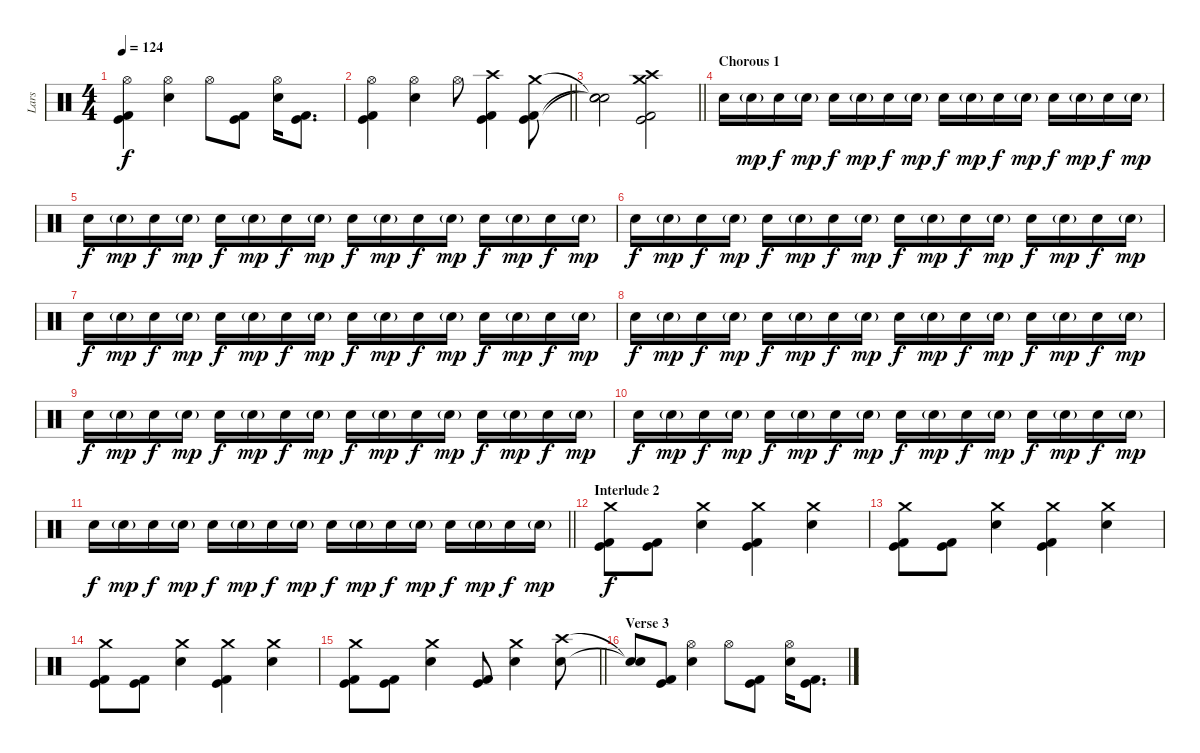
\track ("Lars" "Lars") {instrument percussion}
\staff {score}
\articulation defaults
\ts (4 4)
\tempo 124
\clef neutral
\ks c
("Hi-Hat (open)" "Kick (hit)" "Kick (hit) 2").4{dy f} ("Hi-Hat (open)" "Electric Snare (hit)").4 "Hi-Hat (open)".8 ("Kick (hit)" "Kick (hit) 2").8 ("Hi-Hat (open)" "Electric Snare (hit)").16 ("Kick (hit)" "Kick (hit) 2").8{d} |
\barLineRight lightlight
("Hi-Hat (open)" "Kick (hit)" "Kick (hit) 2").4 ("Hi-Hat (open)" "Electric Snare (hit)").4 "Hi-Hat (open)".8 ("Crash high (hit)" "Kick (hit)" "Kick (hit) 2").4 ("Crash medium (hit)" "Kick (hit)" "Kick (hit) 2").8 |
\barLineRight lightlight
("Snare (hit)"{t} "Snare (hit)"{t} "Snare (hit)"{t}).2 ("Crash medium (hit)" "Crash high (hit)" "Kick (hit)" "Kick (hit) 2").2 |
\section ("" "Chorous 1")
"Electric Snare (hit)".16{volume 10} "Electric Snare (hit)"{g}.16{dy mp} "Electric Snare (hit)".16{dy f} "Electric Snare (hit)"{g}.16{dy mp} "Electric Snare (hit)".16{dy f} "Electric Snare (hit)"{g}.16{dy mp} "Electric Snare (hit)".16{dy f} "Electric Snare (hit)"{g}.16{dy mp} "Electric Snare (hit)".16{dy f} "Electric Snare (hit)"{g}.16{dy mp} "Electric Snare (hit)".16{dy f} "Electric Snare (hit)"{g}.16{dy mp} "Electric Snare (hit)".16{dy f} "Electric Snare (hit)"{g}.16{dy mp} "Electric Snare (hit)".16{dy f} "Electric Snare (hit)"{g}.16{dy mp} |
"Electric Snare (hit)".16{dy f} "Electric Snare (hit)"{g}.16{dy mp} "Electric Snare (hit)".16{dy f} "Electric Snare (hit)"{g}.16{dy mp} "Electric Snare (hit)".16{dy f} "Electric Snare (hit)"{g}.16{dy mp} "Electric Snare (hit)".16{dy f} "Electric Snare (hit)"{g}.16{dy mp} "Electric Snare (hit)".16{dy f} "Electric Snare (hit)"{g}.16{dy mp} "Electric Snare (hit)".16{dy f} "Electric Snare (hit)"{g}.16{dy mp} "Electric Snare (hit)".16{dy f} "Electric Snare (hit)"{g}.16{dy mp} "Electric Snare (hit)".16{dy f} "Electric Snare (hit)"{g}.16{dy mp} |
"Electric Snare (hit)".16{dy f} "Electric Snare (hit)"{g}.16{dy mp} "Electric Snare (hit)".16{dy f} "Electric Snare (hit)"{g}.16{dy mp} "Electric Snare (hit)".16{dy f} "Electric Snare (hit)"{g}.16{dy mp} "Electric Snare (hit)".16{dy f} "Electric Snare (hit)"{g}.16{dy mp} "Electric Snare (hit)".16{dy f} "Electric Snare (hit)"{g}.16{dy mp} "Electric Snare (hit)".16{dy f} "Electric Snare (hit)"{g}.16{dy mp} "Electric Snare (hit)".16{dy f} "Electric Snare (hit)"{g}.16{dy mp} "Electric Snare (hit)".16{dy f} "Electric Snare (hit)"{g}.16{dy mp} |
"Electric Snare (hit)".16{dy f} "Electric Snare (hit)"{g}.16{dy mp} "Electric Snare (hit)".16{dy f} "Electric Snare (hit)"{g}.16{dy mp} "Electric Snare (hit)".16{dy f} "Electric Snare (hit)"{g}.16{dy mp} "Electric Snare (hit)".16{dy f} "Electric Snare (hit)"{g}.16{dy mp} "Electric Snare (hit)".16{dy f} "Electric Snare (hit)"{g}.16{dy mp} "Electric Snare (hit)".16{dy f} "Electric Snare (hit)"{g}.16{dy mp} "Electric Snare (hit)".16{dy f} "Electric Snare (hit)"{g}.16{dy mp} "Electric Snare (hit)".16{dy f} "Electric Snare (hit)"{g}.16{dy mp} |
"Electric Snare (hit)".16{dy f} "Electric Snare (hit)"{g}.16{dy mp} "Electric Snare (hit)".16{dy f} "Electric Snare (hit)"{g}.16{dy mp} "Electric Snare (hit)".16{dy f} "Electric Snare (hit)"{g}.16{dy mp} "Electric Snare (hit)".16{dy f} "Electric Snare (hit)"{g}.16{dy mp} "Electric Snare (hit)".16{dy f} "Electric Snare (hit)"{g}.16{dy mp} "Electric Snare (hit)".16{dy f} "Electric Snare (hit)"{g}.16{dy mp} "Electric Snare (hit)".16{dy f} "Electric Snare (hit)"{g}.16{dy mp} "Electric Snare (hit)".16{dy f} "Electric Snare (hit)"{g}.16{dy mp} |
"Electric Snare (hit)".16{dy f} "Electric Snare (hit)"{g}.16{dy mp} "Electric Snare (hit)".16{dy f} "Electric Snare (hit)"{g}.16{dy mp} "Electric Snare (hit)".16{dy f} "Electric Snare (hit)"{g}.16{dy mp} "Electric Snare (hit)".16{dy f} "Electric Snare (hit)"{g}.16{dy mp} "Electric Snare (hit)".16{dy f} "Electric Snare (hit)"{g}.16{dy mp} "Electric Snare (hit)".16{dy f} "Electric Snare (hit)"{g}.16{dy mp} "Electric Snare (hit)".16{dy f} "Electric Snare (hit)"{g}.16{dy mp} "Electric Snare (hit)".16{dy f} "Electric Snare (hit)"{g}.16{dy mp} |
"Electric Snare (hit)".16{dy f volume 16} "Electric Snare (hit)"{g}.16{dy mp} "Electric Snare (hit)".16{dy f} "Electric Snare (hit)"{g}.16{dy mp} "Electric Snare (hit)".16{dy f} "Electric Snare (hit)"{g}.16{dy mp} "Electric Snare (hit)".16{dy f} "Electric Snare (hit)"{g}.16{dy mp} "Electric Snare (hit)".16{dy f} "Electric Snare (hit)"{g}.16{dy mp} "Electric Snare (hit)".16{dy f} "Electric Snare (hit)"{g}.16{dy mp} "Electric Snare (hit)".16{dy f} "Electric Snare (hit)"{g}.16{dy mp} "Electric Snare (hit)".16{dy f} "Electric Snare (hit)"{g}.16{dy mp} |
\barLineRight lightlight "Electric Snare (hit)".16{dy f} "Electric Snare (hit)"{g}.16{dy mp} "Electric Snare (hit)".16{dy f} "Electric Snare (hit)"{g}.16{dy mp} "Electric Snare (hit)".16{dy f} "Electric Snare (hit)"{g}.16{dy mp} "Electric Snare (hit)".16{dy f} "Electric Snare (hit)"{g}.16{dy mp} "Electric Snare (hit)".16{dy f} "Electric Snare (hit)"{g}.16{dy mp} "Electric Snare (hit)".16{dy f} "Electric Snare (hit)"{g}.16{dy mp} "Electric Snare (hit)".16{dy f} "Electric Snare (hit)"{g}.16{dy mp} "Electric Snare (hit)".16{dy f} "Electric Snare (hit)"{g}.16{dy mp}
|
\section ("" "Interlude 2")
("Crash medium (hit)" "Kick (hit)" "Kick (hit) 2").8{dy f} ("Kick (hit)" "Kick (hit) 2").8 ("Crash medium (hit)" "Electric Snare (hit)").4 ("Crash medium (hit)" "Kick (hit)" "Kick (hit) 2").4 ("Crash medium (hit)" "Electric Snare (hit)").4 |
("Crash medium (hit)" "Kick (hit)" "Kick (hit) 2").8 ("Kick (hit)" "Kick (hit) 2").8 ("Crash medium (hit)" "Electric Snare (hit)").4 ("Crash medium (hit)" "Kick (hit)" "Kick (hit) 2").4 ("Crash medium (hit)" "Electric Snare (hit)").4 |
("Crash medium (hit)" "Kick (hit)" "Kick (hit) 2").8 ("Kick (hit)" "Kick (hit) 2").8 ("Crash medium (hit)" "Electric Snare (hit)").4 ("Crash medium (hit)" "Kick (hit)" "Kick (hit) 2").4 ("Crash medium (hit)" "Electric Snare (hit)").4 |
\barLineRight lightlight
("Crash medium (hit)" "Kick (hit)" "Kick (hit) 2").8 ("Kick (hit)" "Kick (hit) 2").8 ("Crash medium (hit)" "Electric Snare (hit)").4 ("Kick (hit)" "Kick (hit) 2").8 ("Crash medium (hit)" "Electric Snare (hit)").4 ("Crash high (hit)" "Electric Snare (hit)").8 |
\section ("" "Verse 3")
("Snare (hit)"{t} "Snare (hit)"{t}).8 ("Kick (hit)" "Kick (hit) 2").8 ("Hi-Hat (open)" "Electric Snare (hit)").4 "Hi-Hat (open)".8 ("Kick (hit)" "Kick (hit) 2").8 ("Hi-Hat (open)" "Electric Snare (hit)").16 ("Kick (hit)" "Kick (hit) 2").8{d}
